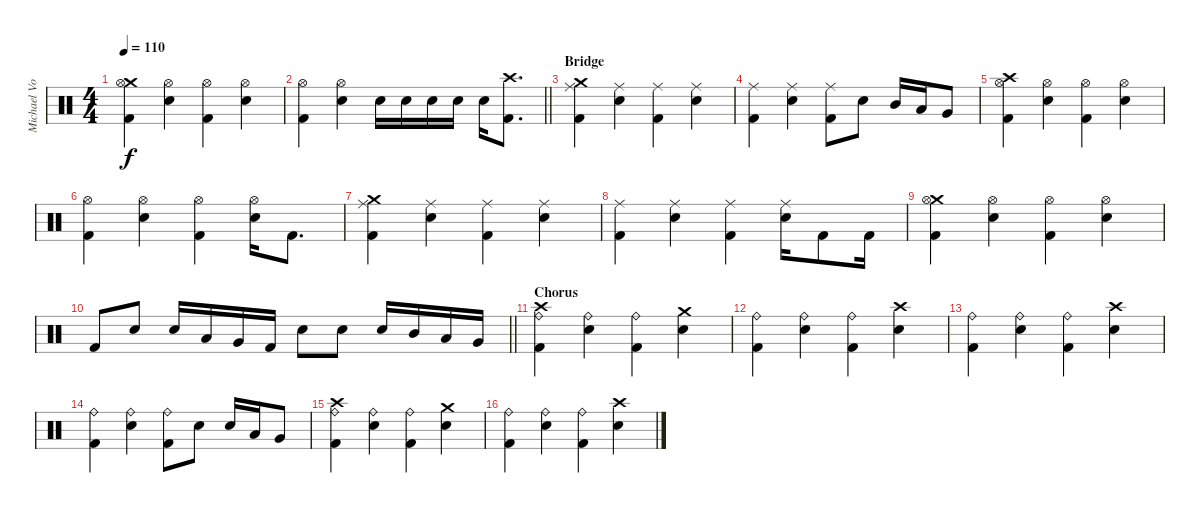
\track ("Michael Von Knorring" "Michael Vo") {instrument percussion}
\staff {score}
\articulation defaults
\ts (4 4)
\tempo 110
\clef neutral
\ks c
("Crash medium (hit)" "Hi-Hat (open)" "Kick (hit) 2").4{dy f} ("Hi-Hat (open)" "Snare (hit) 2").4 ("Hi-Hat (open)" "Kick (hit) 2").4 ("Hi-Hat (open)" "Snare (hit) 2").4 |
\barLineRight lightlight
("Hi-Hat (open)" "Kick (hit) 2").4 ("Hi-Hat (open)" "Snare (hit) 2").4 "Snare (hit) 2".16 "Snare (hit) 2".16 "Snare (hit) 2".16 "Snare (hit) 2".16 "Snare (hit) 2".16 ("Crash high (hit)" "Kick (hit) 2").8{d} |
\section ("" "Bridge")
("Crash medium (hit)" "Ride (middle)" "Kick (hit) 2").4 ("Ride (middle)" "Snare (hit) 2").4 ("Ride (middle)" "Kick (hit) 2").4 ("Ride (middle)" "Snare (hit) 2").4 |
("Ride (middle)" "Kick (hit) 2").4 ("Ride (middle)" "Snare (hit) 2").4 ("Ride (middle)" "Kick (hit) 2").8 "Snare (hit) 2".8 "Mid Tom (hit)".16 "Low Tom (hit)".16 "Very Low Tom (hit)".8 |
("Crash high (hit)" "Hi-Hat (open)" "Kick (hit) 2").4 ("Hi-Hat (open)" "Snare (hit) 2").4 ("Hi-Hat (open)" "Kick (hit) 2").4 ("Hi-Hat (open)" "Snare (hit) 2").4 |
("Hi-Hat (open)" "Kick (hit) 2").4 ("Hi-Hat (open)" "Snare (hit) 2").4 ("Hi-Hat (open)" "Kick (hit) 2").4 ("Hi-Hat (open)" "Snare (hit) 2").16 "Kick (hit) 2".8{d} |
("Crash medium (hit)" "Ride (middle)" "Kick (hit) 2").4 ("Ride (middle)" "Snare (hit) 2").4 ("Ride (middle)" "Kick (hit) 2").4 ("Ride (middle)" "Snare (hit) 2").4 |
("Ride (middle)" "Kick (hit) 2").4 ("Ride (middle)" "Snare (hit) 2").4 ("Ride (middle)" "Kick (hit) 2").4 ("Ride (middle)" "Snare (hit) 2").16 "Kick (hit) 2".8 "Kick (hit) 2".16 |
("Crash medium (hit)" "Hi-Hat (open)" "Kick (hit) 2").4 ("Hi-Hat (open)" "Snare (hit) 2").4 ("Hi-Hat (open)" "Kick (hit) 2").4 ("Hi-Hat (open)" "Snare (hit) 2").4 |
\barLineRight lightlight "Kick (hit) 2".8 "Snare (hit) 2".8 "Snare (hit) 2".16 "Low Tom (hit)".16 "Very Low Tom (hit)".16 "Kick (hit) 2".16 "Snare (hit) 2".8 "Snare (hit) 2".8 "Snare (hit) 2".16 "Mid Tom (hit)".16 "Low Tom (hit)".16 "Very Low Tom (hit)".16
|
\section ("" "Chorus")
("Crash high (hit)" "Ride (bell)" "Kick (hit) 2").4 ("Ride (bell)" "Snare (hit) 2").4 ("Ride (bell)" "Kick (hit) 2").4 ("Crash medium (hit)" "Snare (hit) 2").4 |
("Ride (bell)" "Kick (hit) 2").4 ("Ride (bell)" "Snare (hit) 2").4 ("Ride (bell)" "Kick (hit) 2").4 ("Crash high (hit)" "Snare (hit) 2").4 |
("Ride (bell)" "Kick (hit) 2").4 ("Ride (bell)" "Snare (hit) 2").4 ("Ride (bell)" "Kick (hit) 2").4 ("Crash high (hit)" "Snare (hit) 2").4 |
("Ride (bell)" "Kick (hit) 2").4 ("Ride (bell)" "Snare (hit) 2").4 ("Ride (bell)" "Kick (hit) 2").8 "Snare (hit) 2".8 "Snare (hit) 2".16 "Low Tom (hit)".16 "Very Low Tom (hit)".8 |
("Crash high (hit)" "Ride (bell)" "Kick (hit) 2").4 ("Ride (bell)" "Snare (hit) 2").4 ("Ride (bell)" "Kick (hit) 2").4 ("Crash medium (hit)" "Snare (hit) 2").4 |
("Ride (bell)" "Kick (hit) 2").4 ("Ride (bell)" "Snare (hit) 2").4 ("Ride (bell)" "Kick (hit) 2").4 ("Crash high (hit)" "Snare (hit) 2").4
